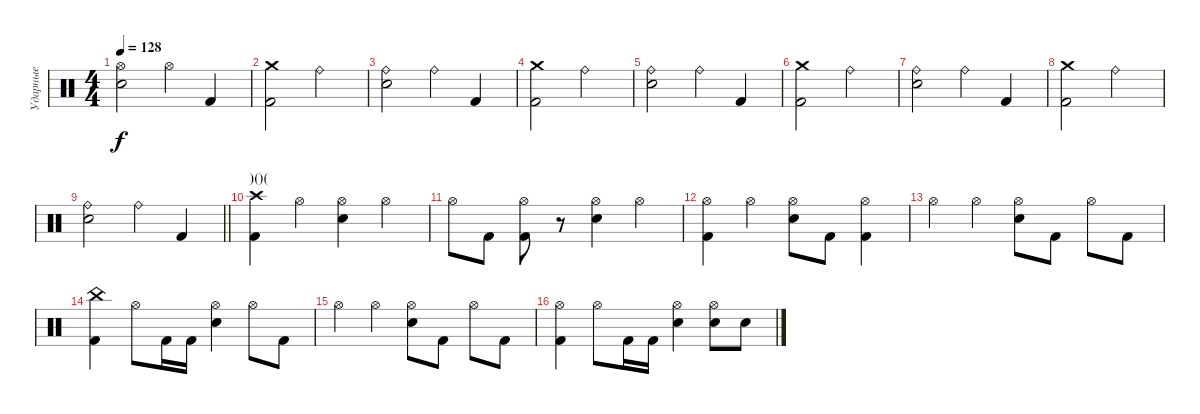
\track ("Ударные" "Ударные") {instrument percussion}
\staff {score}
\articulation defaults
\ts (4 4)
\tempo 128
\clef neutral
\ks c
("Hi-Hat (open)" "Snare (hit) 2").2{dy f} "Hi-Hat (open)".4 "Kick (hit) 2".4 |
("Crash medium (hit)" "Kick (hit) 2").2 "Ride (bell)".2 |
("Ride (bell)" "Snare (hit) 2").2 "Ride (bell)".4 "Kick (hit) 2".4 |
("Crash medium (hit)" "Kick (hit) 2").2 "Ride (bell)".2 |
("Ride (bell)" "Snare (hit) 2").2 "Ride (bell)".4 "Kick (hit) 2".4 |
("Crash medium (hit)" "Kick (hit) 2").2 "Ride (bell)".2 |
("Ride (bell)" "Snare (hit) 2").2 "Ride (bell)".4 "Kick (hit) 2".4 |
("Crash medium (hit)" "Kick (hit) 2").2 "Ride (bell)".2 |
\barLineRight lightlight
("Ride (bell)" "Snare (hit) 2").2 "Ride (bell)".4 "Kick (hit) 2".4 |
\section ("" ")()(")
("Crash high (hit)" "Kick (hit) 2").4 "Hi-Hat (open)".4 ("Hi-Hat (open)" "Snare (hit) 2").4 "Hi-Hat (open)".4 |
"Hi-Hat (open)".8 "Kick (hit) 2".8 ("Hi-Hat (open)" "Kick (hit) 2").8 r.8 ("Hi-Hat (open)" "Snare (hit) 2").4 "Hi-Hat (open)".4 |
("Hi-Hat (open)" "Kick (hit) 2").4 "Hi-Hat (open)".4 ("Hi-Hat (open)" "Snare (hit) 2").8 "Kick (hit) 2".8 ("Hi-Hat (open)" "Kick (hit) 2").4 |
"Hi-Hat (open)".4 "Hi-Hat (open)".4 ("Hi-Hat (open)" "Snare (hit) 2").8 "Kick (hit) 2".8 "Hi-Hat (open)".8 "Kick (hit) 2".8 |
("China (hit)" "Kick (hit) 2").4 "Hi-Hat (open)".8 "Kick (hit) 2".16 "Kick (hit) 2".16 ("Hi-Hat (open)" "Snare (hit) 2").4 "Hi-Hat (open)".8 "Kick (hit) 2".8 |
"Hi-Hat (open)".4 "Hi-Hat (open)".4 ("Hi-Hat (open)" "Snare (hit) 2").8 "Kick (hit) 2".8 "Hi-Hat (open)".8 "Kick (hit) 2".8 |
("Hi-Hat (open)" "Kick (hit) 2").4 "Hi-Hat (open)".8 "Kick (hit) 2".16 "Kick (hit) 2".16 ("Hi-Hat (open)" "Snare (hit) 2").4 ("Hi-Hat (open)" "Snare (hit) 2").8 "Snare (hit) 2".8
